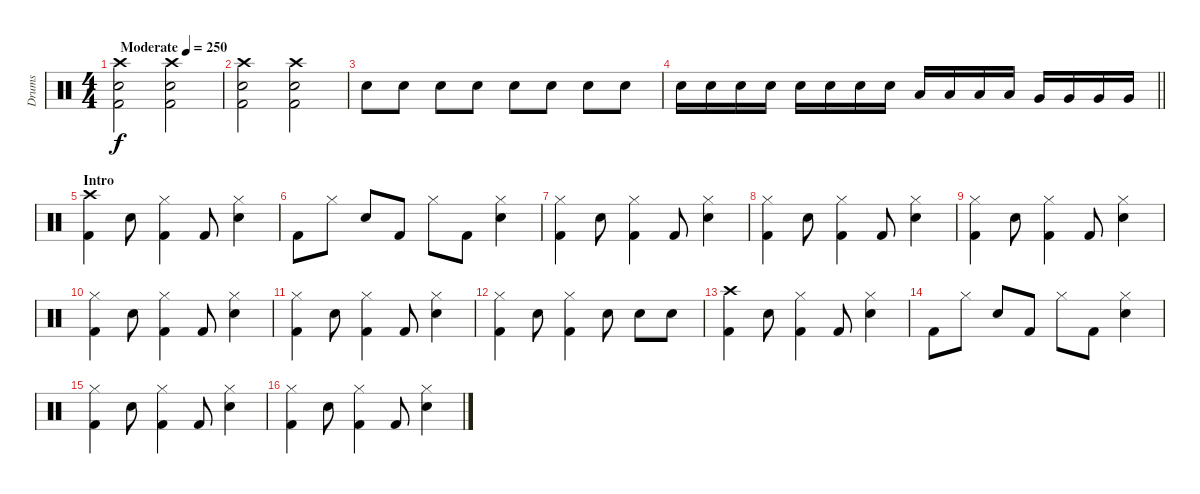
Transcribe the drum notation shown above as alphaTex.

\track ("Drums" "Drums") {instrument percussion}
\staff {score}
\articulation defaults
\ts (4 4)
\tempo (250 "Moderate")
\clef neutral
\ks c
("Crash high (hit)" "Snare (hit) 2" "Kick (hit) 2").2{dy f} ("Crash high (hit)" "Snare (hit) 2" "Kick (hit) 2").2 |
("Crash high (hit)" "Snare (hit) 2" "Kick (hit) 2").2 ("Crash high (hit)" "Snare (hit) 2" "Kick (hit) 2").2 |
"Snare (hit) 2".8 "Snare (hit) 2".8 "Electric Snare (hit)".8 "Electric Snare (hit)".8 "Snare (hit) 2".8 "Snare (hit) 2".8 "Electric Snare (hit)".8 "Electric Snare (hit)".8 |
\barLineRight lightlight "Snare (hit) 2".16 "Snare (hit) 2".16 "Snare (hit) 2".16 "Snare (hit) 2".16 "Electric Snare (hit)".16 "Electric Snare (hit)".16 "Electric Snare (hit)".16 "Electric Snare (hit)".16 "Low Tom (hit)".16 "Low Tom (hit)".16 "Low Tom (hit)".16 "Low Tom (hit)".16 "Very Low Tom (hit)".16 "Very Low Tom (hit)".16 "Very Low Tom (hit)".16 "Very Low Tom (hit)".16
|
\section ("" "Intro")
("Crash high (hit)" "Kick (hit) 2").4 "Snare (hit) 2".8 ("Hi-Hat (closed)" "Kick (hit) 2").4 "Kick (hit) 2".8 ("Hi-Hat (closed)" "Snare (hit) 2").4 |
"Kick (hit) 2".8 "Hi-Hat (closed)".8 "Snare (hit) 2".8 "Kick (hit) 2".8 "Hi-Hat (closed)".8 "Kick (hit) 2".8 ("Hi-Hat (closed)" "Snare (hit) 2").4 |
("Hi-Hat (closed)" "Kick (hit) 2").4 "Snare (hit) 2".8 ("Hi-Hat (closed)" "Kick (hit) 2").4 "Kick (hit) 2".8 ("Hi-Hat (closed)" "Snare (hit) 2").4 |
("Hi-Hat (closed)" "Kick (hit) 2").4 "Snare (hit) 2".8 ("Hi-Hat (closed)" "Kick (hit) 2").4 "Kick (hit) 2".8 ("Hi-Hat (closed)" "Snare (hit) 2").4 |
("Hi-Hat (closed)" "Kick (hit) 2").4 "Snare (hit) 2".8 ("Hi-Hat (closed)" "Kick (hit) 2").4 "Kick (hit) 2".8 ("Hi-Hat (closed)" "Snare (hit) 2").4 |
("Hi-Hat (closed)" "Kick (hit) 2").4 "Snare (hit) 2".8 ("Hi-Hat (closed)" "Kick (hit) 2").4 "Kick (hit) 2".8 ("Hi-Hat (closed)" "Snare (hit) 2").4 |
("Hi-Hat (closed)" "Kick (hit) 2").4 "Snare (hit) 2".8 ("Hi-Hat (closed)" "Kick (hit) 2").4 "Kick (hit) 2".8 ("Hi-Hat (closed)" "Snare (hit) 2").4 |
("Hi-Hat (closed)" "Kick (hit) 2").4 "Snare (hit) 2".8 ("Hi-Hat (closed)" "Kick (hit) 2").4 "Snare (hit) 2".8 "Snare (hit) 2".8 "Snare (hit) 2".8 |
("Crash high (hit)" "Kick (hit) 2").4 "Snare (hit) 2".8 ("Hi-Hat (closed)" "Kick (hit) 2").4 "Kick (hit) 2".8 ("Hi-Hat (closed)" "Snare (hit) 2").4 |
"Kick (hit) 2".8 "Hi-Hat (closed)".8 "Snare (hit) 2".8 "Kick (hit) 2".8 "Hi-Hat (closed)".8 "Kick (hit) 2".8 ("Hi-Hat (closed)" "Snare (hit) 2").4 |
("Hi-Hat (closed)" "Kick (hit) 2").4 "Snare (hit) 2".8 ("Hi-Hat (closed)" "Kick (hit) 2").4 "Kick (hit) 2".8 ("Hi-Hat (closed)" "Snare (hit) 2").4 |
("Hi-Hat (closed)" "Kick (hit) 2").4 "Snare (hit) 2".8 ("Hi-Hat (closed)" "Kick (hit) 2").4 "Kick (hit) 2".8 ("Hi-Hat (closed)" "Snare (hit) 2").4
